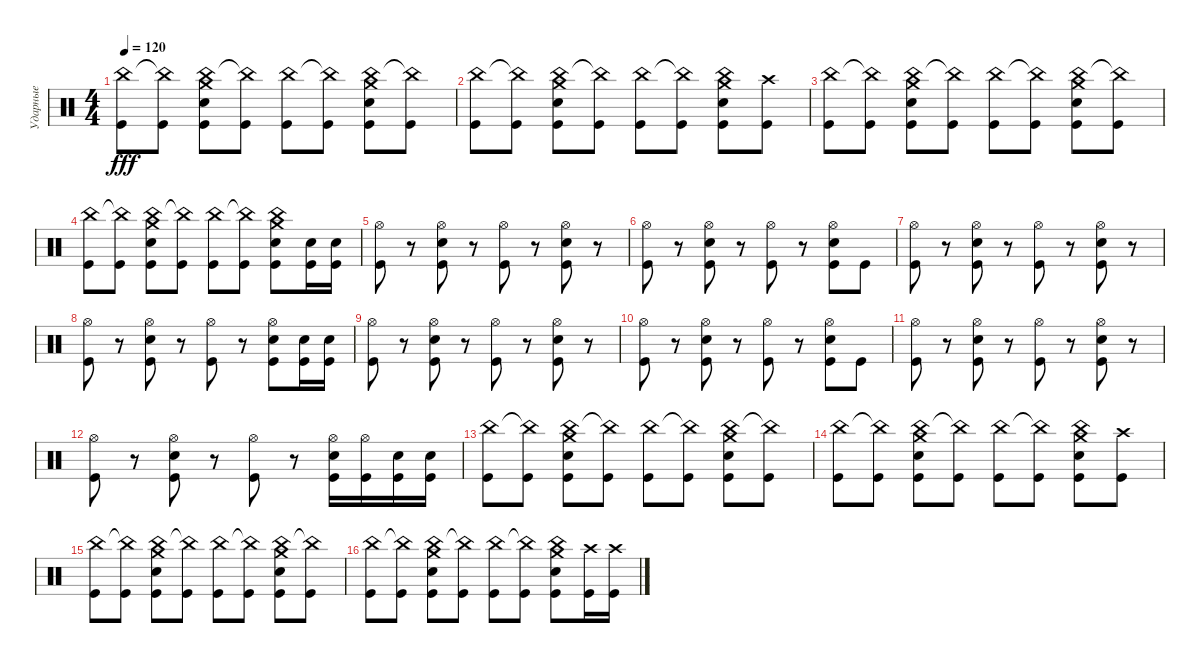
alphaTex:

\track ("Ударные" "Ударные") {instrument percussion}
\staff {score}
\articulation defaults
\ts (4 4)
\tempo 120
\clef neutral
\ks c
("China (hit)" "Kick (hit)").8{dy fff} ("China (hit)"{t} "Kick (hit)").8 ("China (hit)" "Crash medium (hit)" "Snare (hit) 2" "Kick (hit)").8 ("China (hit)"{t} "Kick (hit)").8 ("China (hit)" "Kick (hit)").8 ("China (hit)"{t} "Kick (hit)").8 ("China (hit)" "Crash medium (hit)" "Snare (hit) 2" "Kick (hit)").8 ("China (hit)"{t} "Kick (hit)").8 |
("China (hit)" "Kick (hit)").8 ("China (hit)"{t} "Kick (hit)").8 ("China (hit)" "Crash medium (hit)" "Snare (hit) 2" "Kick (hit)").8 ("China (hit)"{t} "Kick (hit)").8 ("China (hit)" "Kick (hit)").8 ("China (hit)"{t} "Kick (hit)").8 ("China (hit)" "Crash medium (hit)" "Snare (hit) 2" "Kick (hit)").8 ("Crash high (hit)" "Kick (hit)").8 |
("China (hit)" "Kick (hit)").8 ("China (hit)"{t} "Kick (hit)").8 ("China (hit)" "Crash medium (hit)" "Snare (hit) 2" "Kick (hit)").8 ("China (hit)"{t} "Kick (hit)").8 ("China (hit)" "Kick (hit)").8 ("China (hit)"{t} "Kick (hit)").8 ("China (hit)" "Crash medium (hit)" "Snare (hit) 2" "Kick (hit)").8 ("China (hit)"{t} "Kick (hit)").8 |
("China (hit)" "Kick (hit)").8 ("China (hit)"{t} "Kick (hit)").8 ("China (hit)" "Crash medium (hit)" "Snare (hit) 2" "Kick (hit)").8 ("China (hit)"{t} "Kick (hit)").8 ("China (hit)" "Kick (hit)").8 ("China (hit)"{t} "Kick (hit)").8 ("China (hit)" "Crash medium (hit)" "Snare (hit) 2" "Kick (hit)").8 ("Snare (hit) 2" "Kick (hit)").16 ("Snare (hit) 2" "Kick (hit)").16 |
("Hi-Hat (open)" "Kick (hit)").8 r.8 ("Hi-Hat (open)" "Snare (hit) 2" "Kick (hit)").8 r.8 ("Hi-Hat (open)" "Kick (hit)").8 r.8 ("Hi-Hat (open)" "Snare (hit) 2" "Kick (hit)").8 r.8 |
("Hi-Hat (open)" "Kick (hit)").8 r.8 ("Hi-Hat (open)" "Snare (hit) 2" "Kick (hit)").8 r.8 ("Hi-Hat (open)" "Kick (hit)").8 r.8 ("Hi-Hat (open)" "Snare (hit) 2" "Kick (hit)").8 "Kick (hit)".8 |
("Hi-Hat (open)" "Kick (hit)").8 r.8 ("Hi-Hat (open)" "Snare (hit) 2" "Kick (hit)").8 r.8 ("Hi-Hat (open)" "Kick (hit)").8 r.8 ("Hi-Hat (open)" "Snare (hit) 2" "Kick (hit)").8 r.8 |
("Hi-Hat (open)" "Kick (hit)").8 r.8 ("Hi-Hat (open)" "Snare (hit) 2" "Kick (hit)").8 r.8 ("Hi-Hat (open)" "Kick (hit)").8 r.8 ("Hi-Hat (open)" "Snare (hit) 2" "Kick (hit)").8 ("Snare (hit) 2" "Kick (hit)").16 ("Snare (hit) 2" "Kick (hit)").16 |
("Hi-Hat (open)" "Kick (hit)").8 r.8 ("Hi-Hat (open)" "Snare (hit) 2" "Kick (hit)").8 r.8 ("Hi-Hat (open)" "Kick (hit)").8 r.8 ("Hi-Hat (open)" "Snare (hit) 2" "Kick (hit)").8 r.8 |
("Hi-Hat (open)" "Kick (hit)").8 r.8 ("Hi-Hat (open)" "Snare (hit) 2" "Kick (hit)").8 r.8 ("Hi-Hat (open)" "Kick (hit)").8 r.8 ("Hi-Hat (open)" "Snare (hit) 2" "Kick (hit)").8 "Kick (hit)".8 |
("Hi-Hat (open)" "Kick (hit)").8 r.8 ("Hi-Hat (open)" "Snare (hit) 2" "Kick (hit)").8 r.8 ("Hi-Hat (open)" "Kick (hit)").8 r.8 ("Hi-Hat (open)" "Snare (hit) 2" "Kick (hit)").8 r.8 |
("Hi-Hat (open)" "Kick (hit)").8 r.8 ("Hi-Hat (open)" "Snare (hit) 2" "Kick (hit)").8 r.8 ("Hi-Hat (open)" "Kick (hit)").8 r.8 ("Hi-Hat (open)" "Snare (hit) 2" "Kick (hit)").16 ("Hi-Hat (open)" "Kick (hit)").16 ("Snare (hit) 2" "Kick (hit)").16 ("Snare (hit) 2" "Kick (hit)").16 |
("China (hit)" "Kick (hit)").8 ("China (hit)"{t} "Kick (hit)").8 ("China (hit)" "Crash medium (hit)" "Snare (hit) 2" "Kick (hit)").8 ("China (hit)"{t} "Kick (hit)").8 ("China (hit)" "Kick (hit)").8 ("China (hit)"{t} "Kick (hit)").8 ("China (hit)" "Crash medium (hit)" "Snare (hit) 2" "Kick (hit)").8 ("China (hit)"{t} "Kick (hit)").8 |
("China (hit)" "Kick (hit)").8 ("China (hit)"{t} "Kick (hit)").8 ("China (hit)" "Crash medium (hit)" "Snare (hit) 2" "Kick (hit)").8 ("China (hit)"{t} "Kick (hit)").8 ("China (hit)" "Kick (hit)").8 ("China (hit)"{t} "Kick (hit)").8 ("China (hit)" "Crash medium (hit)" "Snare (hit) 2" "Kick (hit)").8 ("Crash high (hit)" "Kick (hit)").8 |
("China (hit)" "Kick (hit)").8 ("China (hit)"{t} "Kick (hit)").8 ("China (hit)" "Crash medium (hit)" "Snare (hit) 2" "Kick (hit)").8 ("China (hit)"{t} "Kick (hit)").8 ("China (hit)" "Kick (hit)").8 ("China (hit)"{t} "Kick (hit)").8 ("China (hit)" "Crash medium (hit)" "Snare (hit) 2" "Kick (hit)").8 ("China (hit)"{t} "Kick (hit)").8 |
("China (hit)" "Kick (hit)").8 ("China (hit)"{t} "Kick (hit)").8 ("China (hit)" "Crash medium (hit)" "Snare (hit) 2" "Kick (hit)").8 ("China (hit)"{t} "Kick (hit)").8 ("China (hit)" "Kick (hit)").8 ("China (hit)"{t} "Kick (hit)").8 ("China (hit)" "Crash medium (hit)" "Snare (hit) 2" "Kick (hit)").8 ("Crash high (hit)" "Kick (hit)").16 ("Crash high (hit)" "Kick (hit)").16
